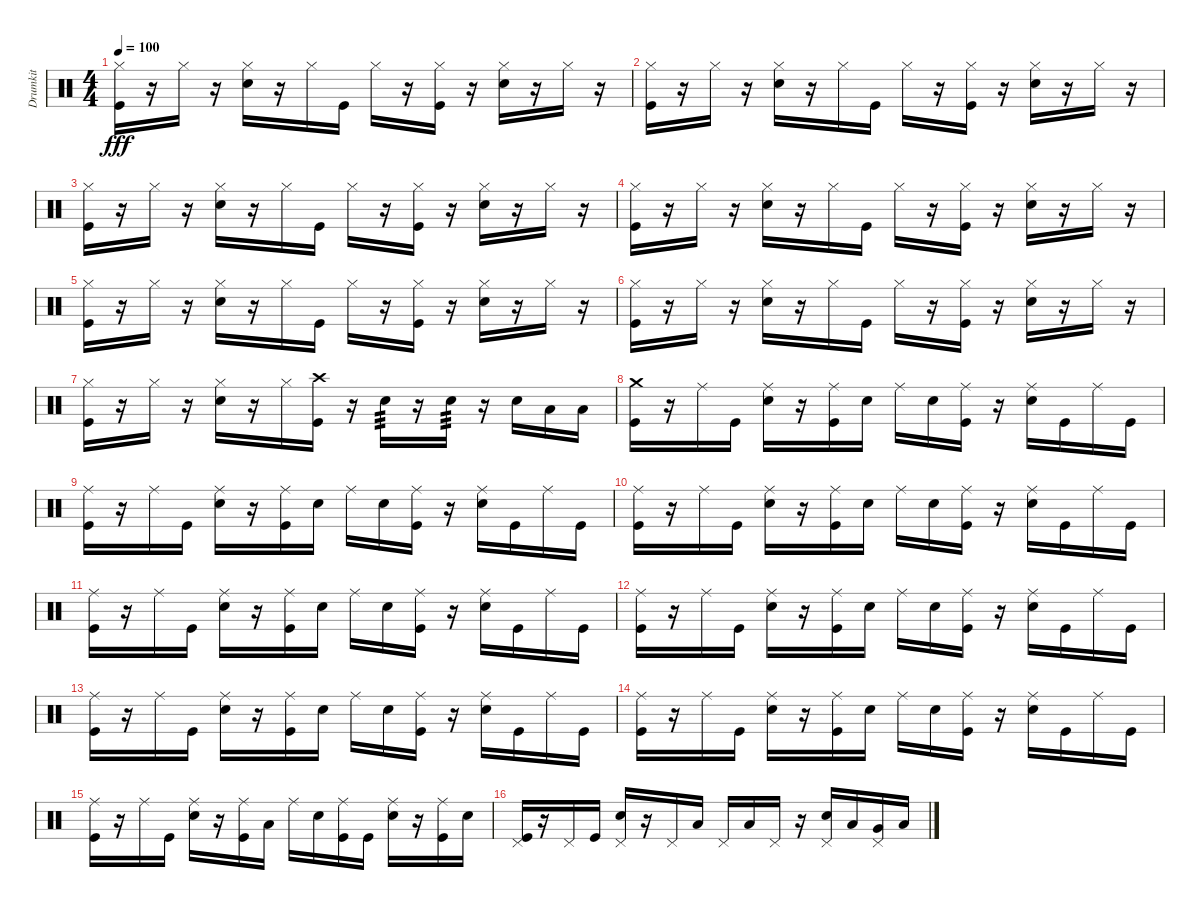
\track ("Drumkit" "Drumkit") {instrument percussion}
\staff {score}
\articulation defaults
\ts (4 4)
\tempo 100
\clef neutral
\ks c
("Hi-Hat (closed)" "Kick (hit)").16{dy fff} r.16 "Hi-Hat (closed)".16 r.16 ("Hi-Hat (closed)" "Snare (hit) 2").16 r.16 "Hi-Hat (closed)".16 "Kick (hit)".16 "Hi-Hat (closed)".16 r.16 ("Hi-Hat (closed)" "Kick (hit)").16 r.16 ("Hi-Hat (closed)" "Snare (hit) 2").16 r.16 "Hi-Hat (closed)".16 r.16 |
("Hi-Hat (closed)" "Kick (hit)").16 r.16 "Hi-Hat (closed)".16 r.16 ("Hi-Hat (closed)" "Snare (hit) 2").16 r.16 "Hi-Hat (closed)".16 "Kick (hit)".16 "Hi-Hat (closed)".16 r.16 ("Hi-Hat (closed)" "Kick (hit)").16 r.16 ("Hi-Hat (closed)" "Snare (hit) 2").16 r.16 "Hi-Hat (closed)".16 r.16 |
("Hi-Hat (closed)" "Kick (hit)").16 r.16 "Hi-Hat (closed)".16 r.16 ("Hi-Hat (closed)" "Snare (hit) 2").16 r.16 "Hi-Hat (closed)".16 "Kick (hit)".16 "Hi-Hat (closed)".16 r.16 ("Hi-Hat (closed)" "Kick (hit)").16 r.16 ("Hi-Hat (closed)" "Snare (hit) 2").16 r.16 "Hi-Hat (closed)".16 r.16 |
("Hi-Hat (closed)" "Kick (hit)").16 r.16 "Hi-Hat (closed)".16 r.16 ("Hi-Hat (closed)" "Snare (hit) 2").16 r.16 "Hi-Hat (closed)".16 "Kick (hit)".16 "Hi-Hat (closed)".16 r.16 ("Hi-Hat (closed)" "Kick (hit)").16 r.16 ("Hi-Hat (closed)" "Snare (hit) 2").16 r.16 "Hi-Hat (closed)".16 r.16 |
("Hi-Hat (closed)" "Kick (hit)").16 r.16 "Hi-Hat (closed)".16 r.16 ("Hi-Hat (closed)" "Snare (hit) 2").16 r.16 "Hi-Hat (closed)".16 "Kick (hit)".16 "Hi-Hat (closed)".16 r.16 ("Hi-Hat (closed)" "Kick (hit)").16 r.16 ("Hi-Hat (closed)" "Snare (hit) 2").16 r.16 "Hi-Hat (closed)".16 r.16 |
("Hi-Hat (closed)" "Kick (hit)").16 r.16 "Hi-Hat (closed)".16 r.16 ("Hi-Hat (closed)" "Snare (hit) 2").16 r.16 "Hi-Hat (closed)".16 "Kick (hit)".16 "Hi-Hat (closed)".16 r.16 ("Hi-Hat (closed)" "Kick (hit)").16 r.16 ("Hi-Hat (closed)" "Snare (hit) 2").16 r.16 "Hi-Hat (closed)".16 r.16 |
("Hi-Hat (closed)" "Kick (hit)").16 r.16 "Hi-Hat (closed)".16 r.16 ("Hi-Hat (closed)" "Snare (hit) 2").16 r.16 "Hi-Hat (closed)".16 ("Crash high (hit)" "Kick (hit)").16 r.16 "Snare (hit) 2".16{tp 3} r.16 "Snare (hit) 2".16{tp 3} r.16 "Snare (hit) 2".16 "Low Tom (hit)".16 "Low Tom (hit)".16 |
("Crash medium (hit)" "Kick (hit)").16 r.16 "Ride (middle)".16 "Kick (hit)".16 ("Ride (middle)" "Snare (hit) 2").16 r.16 ("Ride (middle)" "Kick (hit)").16 "Snare (hit) 2".16 "Ride (middle)".16 "Snare (hit) 2".16 ("Ride (middle)" "Kick (hit)").16 r.16 ("Ride (middle)" "Snare (hit) 2").16 "Kick (hit)".16 "Ride (middle)".16 "Kick (hit)".16 |
("Ride (middle)" "Kick (hit)").16 r.16 "Ride (middle)".16 "Kick (hit)".16 ("Ride (middle)" "Snare (hit) 2").16 r.16 ("Ride (middle)" "Kick (hit)").16 "Snare (hit) 2".16 "Ride (middle)".16 "Snare (hit) 2".16 ("Ride (middle)" "Kick (hit)").16 r.16 ("Ride (middle)" "Snare (hit) 2").16 "Kick (hit)".16 "Ride (middle)".16 "Kick (hit)".16 |
("Ride (middle)" "Kick (hit)").16 r.16 "Ride (middle)".16 "Kick (hit)".16 ("Ride (middle)" "Snare (hit) 2").16 r.16 ("Ride (middle)" "Kick (hit)").16 "Snare (hit) 2".16 "Ride (middle)".16 "Snare (hit) 2".16 ("Ride (middle)" "Kick (hit)").16 r.16 ("Ride (middle)" "Snare (hit) 2").16 "Kick (hit)".16 "Ride (middle)".16 "Kick (hit)".16 |
("Ride (middle)" "Kick (hit)").16 r.16 "Ride (middle)".16 "Kick (hit)".16 ("Ride (middle)" "Snare (hit) 2").16 r.16 ("Ride (middle)" "Kick (hit)").16 "Snare (hit) 2".16 "Ride (middle)".16 "Snare (hit) 2".16 ("Ride (middle)" "Kick (hit)").16 r.16 ("Ride (middle)" "Snare (hit) 2").16 "Kick (hit)".16 "Ride (middle)".16 "Kick (hit)".16 |
("Ride (middle)" "Kick (hit)").16 r.16 "Ride (middle)".16 "Kick (hit)".16 ("Ride (middle)" "Snare (hit) 2").16 r.16 ("Ride (middle)" "Kick (hit)").16 "Snare (hit) 2".16 "Ride (middle)".16 "Snare (hit) 2".16 ("Ride (middle)" "Kick (hit)").16 r.16 ("Ride (middle)" "Snare (hit) 2").16 "Kick (hit)".16 "Ride (middle)".16 "Kick (hit)".16 |
("Ride (middle)" "Kick (hit)").16 r.16 "Ride (middle)".16 "Kick (hit)".16 ("Ride (middle)" "Snare (hit) 2").16 r.16 ("Ride (middle)" "Kick (hit)").16 "Snare (hit) 2".16 "Ride (middle)".16 "Snare (hit) 2".16 ("Ride (middle)" "Kick (hit)").16 r.16 ("Ride (middle)" "Snare (hit) 2").16 "Kick (hit)".16 "Ride (middle)".16 "Kick (hit)".16 |
("Ride (middle)" "Kick (hit)").16 r.16 "Ride (middle)".16 "Kick (hit)".16 ("Ride (middle)" "Snare (hit) 2").16 r.16 ("Ride (middle)" "Kick (hit)").16 "Snare (hit) 2".16 "Ride (middle)".16 "Snare (hit) 2".16 ("Ride (middle)" "Kick (hit)").16 r.16 ("Ride (middle)" "Snare (hit) 2").16 "Kick (hit)".16 "Ride (middle)".16 "Kick (hit)".16 |
("Ride (middle)" "Kick (hit)").16 r.16 "Ride (middle)".16 "Kick (hit)".16 ("Ride (middle)" "Snare (hit) 2").16 r.16 ("Ride (middle)" "Kick (hit)").16 "Low Floor Tom (hit)".16 "Ride (middle)".16 "Snare (hit) 2".16 ("Ride (middle)" "Kick (hit)").16 "Kick (hit)".16 ("Ride (middle)" "Snare (hit) 2").16 r.16 ("Ride (middle)" "Kick (hit)").16 "Snare (hit) 2".16 |
("Pedal Hi-Hat (hit)" "Kick (hit)").16 r.16 "Pedal Hi-Hat (hit)".16 "Kick (hit)".16 ("Pedal Hi-Hat (hit)" "Snare (hit) 2").16 r.16 "Pedal Hi-Hat (hit)".16 "Low Tom (hit)".16 "Pedal Hi-Hat (hit)".16 "Low Floor Tom (hit)".16 "Pedal Hi-Hat (hit)".16 r.16 ("Pedal Hi-Hat (hit)" "Snare (hit) 2").16 "Low Tom (hit)".16 ("Pedal Hi-Hat (hit)" "Very Low Tom (hit)").16 "Low Floor Tom (hit)".16
